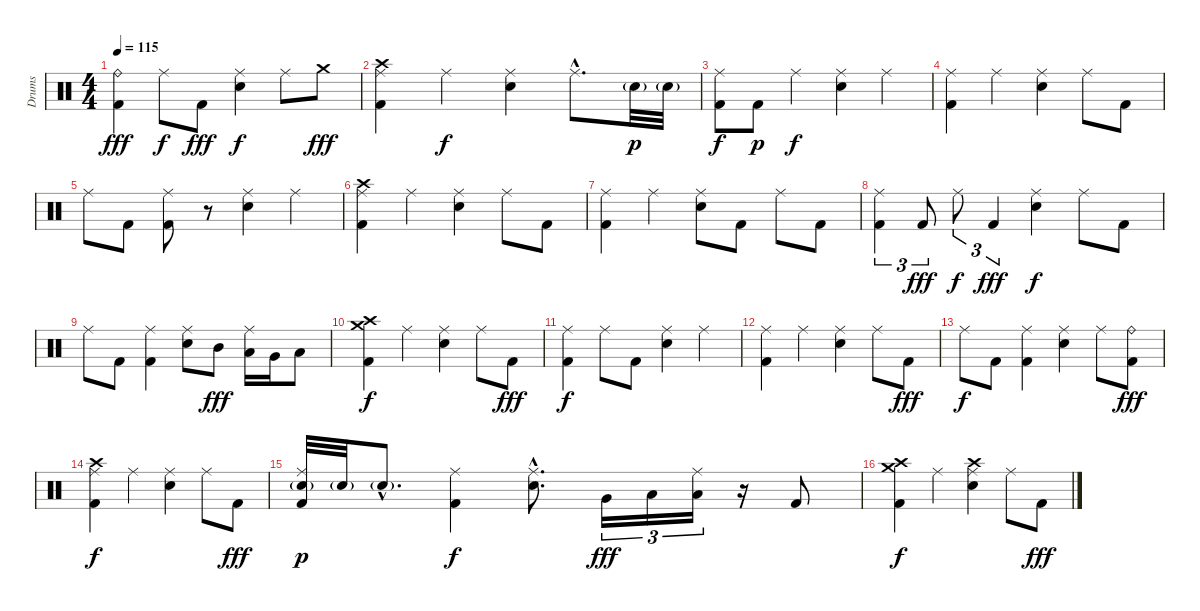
\track ("Drums" "Drums") {instrument percussion}
\staff {score}
\articulation defaults
\ts (4 4)
\tempo 115
\clef neutral
\ks c
("Ride (bell)" "Kick (hit) 2").4{dy fff} "Ride (middle)".8{dy f} "Kick (hit) 2".8{dy fff} ("Ride (middle)" "Electric Snare (hit)").4{dy f} "Ride (middle)".8 "Crash medium (hit)".8{dy fff} |
("Crash high (hit)" "Ride (middle)" "Kick (hit) 2").4 "Ride (middle)".4{dy f} ("Ride (middle)" "Electric Snare (hit)").4 "Ride (middle)"{hac}.8{d} "Electric Snare (hit)"{g}.32{dy p} "Electric Snare (hit)"{g}.32 |
("Ride (middle)" "Kick (hit) 2").8{dy f} "Kick (hit) 2".8{dy p} "Ride (middle)".4{dy f} ("Ride (middle)" "Electric Snare (hit)").4 "Ride (middle)".4 |
("Ride (middle)" "Kick (hit) 2").4 "Ride (middle)".4 ("Ride (middle)" "Electric Snare (hit)").4 "Ride (middle)".8 "Kick (hit) 2".8 |
"Ride (middle)".8 "Kick (hit) 2".8 ("Ride (middle)" "Kick (hit) 2").8 r.8 ("Ride (middle)" "Electric Snare (hit)").4 "Ride (middle)".4 |
("Crash high (hit)" "Ride (middle)" "Kick (hit) 2").4 "Ride (middle)".4 ("Ride (middle)" "Electric Snare (hit)").4 "Ride (middle)".8 "Kick (hit) 2".8 |
("Ride (middle)" "Kick (hit) 2").4 "Ride (middle)".4 ("Ride (middle)" "Electric Snare (hit)").8 "Kick (hit) 2".8 "Ride (middle)".8 "Kick (hit) 2".8 |
("Ride (middle)" "Kick (hit) 2").4{tu (3 2)} "Kick (hit) 2".8{tu (3 2) dy fff} "Ride (middle)".8{tu (3 2) dy f} "Kick (hit) 2".4{tu (3 2) dy fff} ("Ride (middle)" "Electric Snare (hit)").4{dy f} "Ride (middle)".8 "Kick (hit) 2".8 |
"Ride (middle)".8 "Kick (hit) 2".8 ("Ride (middle)" "Kick (hit) 2").4 ("Ride (middle)" "Electric Snare (hit)").8 "Mid Tom (hit)".8{dy fff} ("Ride (middle)" "Low Tom (hit)").16 "Very Low Tom (hit)".16 "Low Floor Tom (hit)".8 |
("Crash medium (hit)" "Crash high (hit)" "Kick (hit) 2").4{dy f} "Ride (middle)".4 ("Ride (middle)" "Electric Snare (hit)").4 "Ride (middle)".8 "Kick (hit) 2".8{dy fff} |
("Ride (middle)" "Kick (hit) 2").4{dy f} "Ride (middle)".8 "Kick (hit) 2".8 ("Ride (middle)" "Electric Snare (hit)").4 "Ride (middle)".4 |
("Ride (middle)" "Kick (hit) 2").4 "Ride (middle)".4 ("Ride (middle)" "Electric Snare (hit)").4 "Ride (middle)".8 "Kick (hit) 2".8{dy fff} |
"Ride (middle)".8{dy f} "Kick (hit) 2".8 ("Ride (middle)" "Kick (hit) 2").4 ("Ride (middle)" "Electric Snare (hit)").4 "Ride (middle)".8 ("Ride (bell)" "Kick (hit) 2").8{dy fff} |
("Crash high (hit)" "Ride (middle)" "Kick (hit) 2").4{dy f} "Ride (middle)".4 ("Ride (middle)" "Electric Snare (hit)").4 "Ride (middle)".8 "Kick (hit) 2".8{dy fff} |
("Ride (middle)" "Electric Snare (hit)"{g} "Kick (hit) 2").32{dy p} "Electric Snare (hit)"{g}.32 "Electric Snare (hit)"{g hac}.8{d} ("Ride (middle)" "Kick (hit) 2").4{dy f} ("Ride (middle)"{hac} "Electric Snare (hit)"{hac}).8{d} "Very Low Tom (hit)".16{tu (3 2) dy fff} "Low Floor Tom (hit)".16{tu (3 2)} ("Ride (middle)" "Low Tom (hit)").16{tu (3 2)} r.16 "Kick (hit) 2".8 |
("Crash medium (hit)" "Crash high (hit)" "Kick (hit) 2").4{dy f} "Ride (middle)".4 ("Crash high (hit)" "Ride (middle)" "Electric Snare (hit)").4 "Ride (middle)".8 "Kick (hit) 2".8{dy fff}
